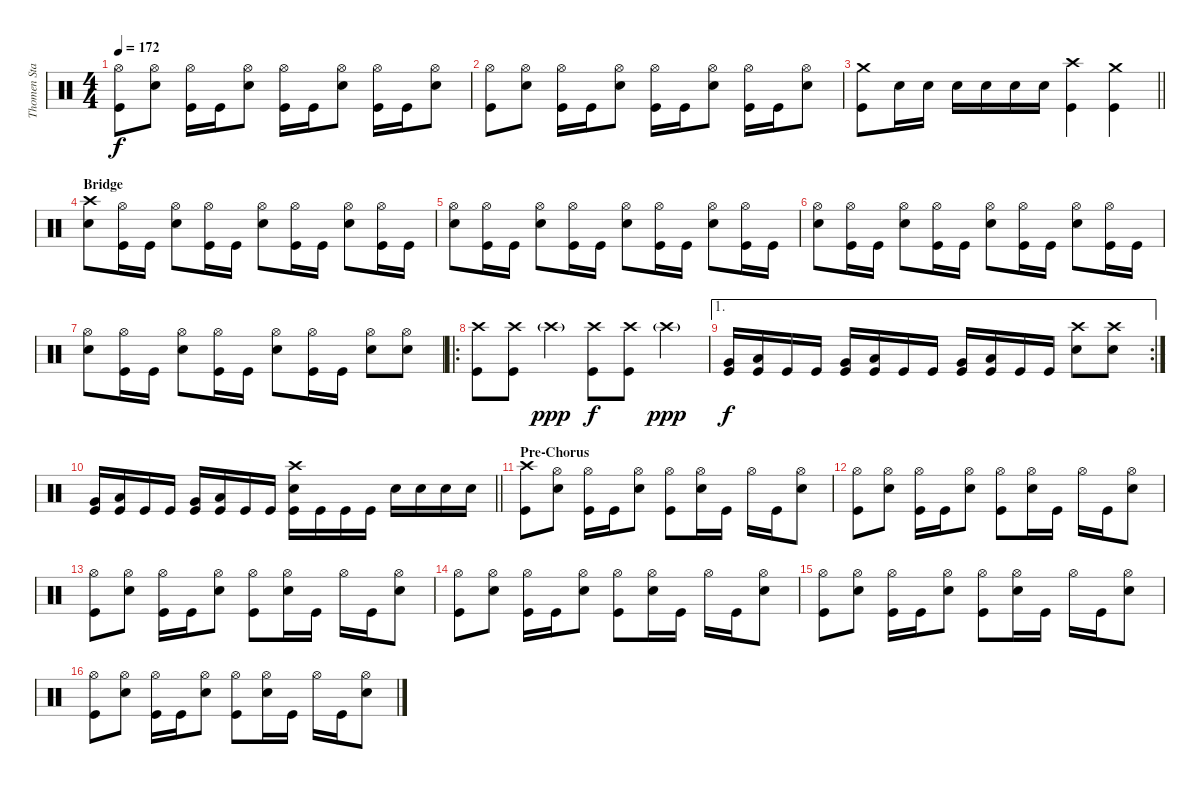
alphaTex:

\track ("Thomen Stauch" "Thomen Sta") {instrument percussion}
\staff {score}
\articulation defaults
\ts (4 4)
\tempo 172
\clef neutral
\ks c
("Hi-Hat (open)" "Kick (hit)").8{dy f} ("Hi-Hat (open)" "Snare (hit) 2").8 ("Hi-Hat (open)" "Kick (hit)").16 "Kick (hit)".16 ("Hi-Hat (open)" "Snare (hit) 2").8 ("Hi-Hat (open)" "Kick (hit)").16 "Kick (hit)".16 ("Hi-Hat (open)" "Snare (hit) 2").8 ("Hi-Hat (open)" "Kick (hit)").16 "Kick (hit)".16 ("Hi-Hat (open)" "Snare (hit) 2").8 |
("Hi-Hat (open)" "Kick (hit)").8 ("Hi-Hat (open)" "Snare (hit) 2").8 ("Hi-Hat (open)" "Kick (hit)").16 "Kick (hit)".16 ("Hi-Hat (open)" "Snare (hit) 2").8 ("Hi-Hat (open)" "Kick (hit)").16 "Kick (hit)".16 ("Hi-Hat (open)" "Snare (hit) 2").8 ("Hi-Hat (open)" "Kick (hit)").16 "Kick (hit)".16 ("Hi-Hat (open)" "Snare (hit) 2").8 |
\barLineRight lightlight
("Crash medium (hit)" "Kick (hit)").8 "Snare (hit) 2".16 "Snare (hit) 2".16 "Snare (hit) 2".16 "Snare (hit) 2".16 "Snare (hit) 2".16 "Snare (hit) 2".16 ("Crash high (hit)" "Kick (hit)").4 ("Crash medium (hit)" "Kick (hit)").4 |
\section ("" "Bridge")
("Crash high (hit)" "Snare (hit) 2").8 ("Hi-Hat (open)" "Kick (hit)").16 "Kick (hit)".16 ("Hi-Hat (open)" "Snare (hit) 2").8 ("Hi-Hat (open)" "Kick (hit)").16 "Kick (hit)".16 ("Hi-Hat (open)" "Snare (hit) 2").8 ("Hi-Hat (open)" "Kick (hit)").16 "Kick (hit)".16 ("Hi-Hat (open)" "Snare (hit) 2").8 ("Hi-Hat (open)" "Kick (hit)").16 "Kick (hit)".16 |
("Hi-Hat (open)" "Snare (hit) 2").8 ("Hi-Hat (open)" "Kick (hit)").16 "Kick (hit)".16 ("Hi-Hat (open)" "Snare (hit) 2").8 ("Hi-Hat (open)" "Kick (hit)").16 "Kick (hit)".16 ("Hi-Hat (open)" "Snare (hit) 2").8 ("Hi-Hat (open)" "Kick (hit)").16 "Kick (hit)".16 ("Hi-Hat (open)" "Snare (hit) 2").8 ("Hi-Hat (open)" "Kick (hit)").16 "Kick (hit)".16 |
("Hi-Hat (open)" "Snare (hit) 2").8 ("Hi-Hat (open)" "Kick (hit)").16 "Kick (hit)".16 ("Hi-Hat (open)" "Snare (hit) 2").8 ("Hi-Hat (open)" "Kick (hit)").16 "Kick (hit)".16 ("Hi-Hat (open)" "Snare (hit) 2").8 ("Hi-Hat (open)" "Kick (hit)").16 "Kick (hit)".16 ("Hi-Hat (open)" "Snare (hit) 2").8 ("Hi-Hat (open)" "Kick (hit)").16 "Kick (hit)".16 |
("Hi-Hat (open)" "Snare (hit) 2").8 ("Hi-Hat (open)" "Kick (hit)").16 "Kick (hit)".16 ("Hi-Hat (open)" "Snare (hit) 2").8 ("Hi-Hat (open)" "Kick (hit)").16 "Kick (hit)".16 ("Hi-Hat (open)" "Snare (hit) 2").8 ("Hi-Hat (open)" "Kick (hit)").16 "Kick (hit)".16 ("Hi-Hat (open)" "Snare (hit) 2").8 ("Hi-Hat (open)" "Snare (hit) 2").8 |
\ro
("Crash high (hit)" "Kick (hit)").8 ("Crash high (hit)" "Kick (hit)").8 "Crash high (hit)"{g}.4{dy ppp} ("Crash high (hit)" "Kick (hit)").8{dy f} ("Crash high (hit)" "Kick (hit)").8 "Crash high (hit)"{g}.4{dy ppp} |
\ae 1
\rc 2
("Very Low Tom (hit)" "Kick (hit)").16{dy f} ("Low Floor Tom (hit)" "Kick (hit)").16 "Kick (hit)".16 "Kick (hit)".16 ("Very Low Tom (hit)" "Kick (hit)").16 ("Low Floor Tom (hit)" "Kick (hit)").16 "Kick (hit)".16 "Kick (hit)".16 ("Very Low Tom (hit)" "Kick (hit)").16 ("Low Floor Tom (hit)" "Kick (hit)").16 "Kick (hit)".16 "Kick (hit)".16 ("Crash high (hit)" "Snare (hit) 2").8 ("Crash high (hit)" "Snare (hit) 2").8 |
\barLineRight lightlight
("Very Low Tom (hit)" "Kick (hit)").16 ("Low Floor Tom (hit)" "Kick (hit)").16 "Kick (hit)".16 "Kick (hit)".16 ("Very Low Tom (hit)" "Kick (hit)").16 ("Low Floor Tom (hit)" "Kick (hit)").16 "Kick (hit)".16 "Kick (hit)".16 ("Crash high (hit)" "Snare (hit) 2" "Kick (hit)").16 "Kick (hit)".16 "Kick (hit)".16 "Kick (hit)".16 "Snare (hit) 2".16 "Snare (hit) 2".16 "Snare (hit) 2".16 "Snare (hit) 2".16 |
\section ("" "Pre-Chorus")
("Crash high (hit)" "Kick (hit)").8 ("Hi-Hat (open)" "Snare (hit) 2").8 ("Hi-Hat (open)" "Kick (hit)").16 "Kick (hit)".16 ("Hi-Hat (open)" "Snare (hit) 2").8 ("Hi-Hat (open)" "Kick (hit)").8 ("Hi-Hat (open)" "Snare (hit) 2").16 "Kick (hit)".16 "Hi-Hat (open)".16 "Kick (hit)".16 ("Hi-Hat (open)" "Snare (hit) 2").8 |
("Hi-Hat (open)" "Kick (hit)").8 ("Hi-Hat (open)" "Snare (hit) 2").8 ("Hi-Hat (open)" "Kick (hit)").16 "Kick (hit)".16 ("Hi-Hat (open)" "Snare (hit) 2").8 ("Hi-Hat (open)" "Kick (hit)").8 ("Hi-Hat (open)" "Snare (hit) 2").16 "Kick (hit)".16 "Hi-Hat (open)".16 "Kick (hit)".16 ("Hi-Hat (open)" "Snare (hit) 2").8 |
("Hi-Hat (open)" "Kick (hit)").8 ("Hi-Hat (open)" "Snare (hit) 2").8 ("Hi-Hat (open)" "Kick (hit)").16 "Kick (hit)".16 ("Hi-Hat (open)" "Snare (hit) 2").8 ("Hi-Hat (open)" "Kick (hit)").8 ("Hi-Hat (open)" "Snare (hit) 2").16 "Kick (hit)".16 "Hi-Hat (open)".16 "Kick (hit)".16 ("Hi-Hat (open)" "Snare (hit) 2").8 |
("Hi-Hat (open)" "Kick (hit)").8 ("Hi-Hat (open)" "Snare (hit) 2").8 ("Hi-Hat (open)" "Kick (hit)").16 "Kick (hit)".16 ("Hi-Hat (open)" "Snare (hit) 2").8 ("Hi-Hat (open)" "Kick (hit)").8 ("Hi-Hat (open)" "Snare (hit) 2").16 "Kick (hit)".16 "Hi-Hat (open)".16 "Kick (hit)".16 ("Hi-Hat (open)" "Snare (hit) 2").8 |
("Hi-Hat (open)" "Kick (hit)").8 ("Hi-Hat (open)" "Snare (hit) 2").8 ("Hi-Hat (open)" "Kick (hit)").16 "Kick (hit)".16 ("Hi-Hat (open)" "Snare (hit) 2").8 ("Hi-Hat (open)" "Kick (hit)").8 ("Hi-Hat (open)" "Snare (hit) 2").16 "Kick (hit)".16 "Hi-Hat (open)".16 "Kick (hit)".16 ("Hi-Hat (open)" "Snare (hit) 2").8 |
("Hi-Hat (open)" "Kick (hit)").8 ("Hi-Hat (open)" "Snare (hit) 2").8 ("Hi-Hat (open)" "Kick (hit)").16 "Kick (hit)".16 ("Hi-Hat (open)" "Snare (hit) 2").8 ("Hi-Hat (open)" "Kick (hit)").8 ("Hi-Hat (open)" "Snare (hit) 2").16 "Kick (hit)".16 "Hi-Hat (open)".16 "Kick (hit)".16 ("Hi-Hat (open)" "Snare (hit) 2").8
